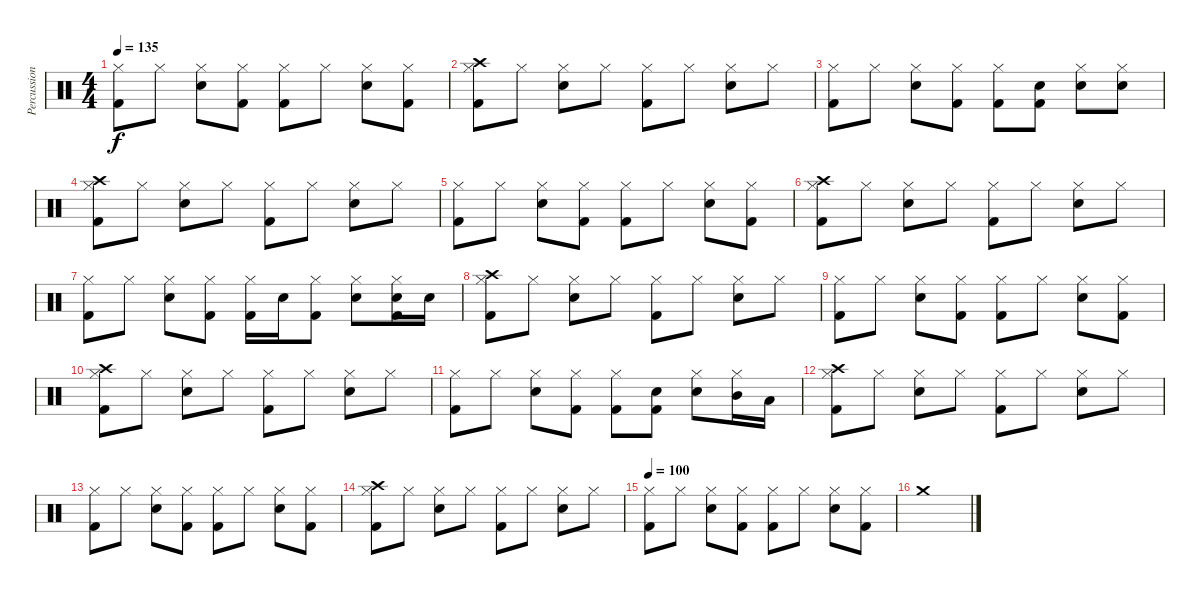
\track ("Percussion" "Percussion") {instrument percussion}
\staff {score}
\articulation defaults
\ts (4 4)
\tempo 135
\clef neutral
\ks c
("Hi-Hat (closed)" "Kick (hit) 2").8{dy f} "Hi-Hat (closed)".8 ("Hi-Hat (closed)" "Electric Snare (hit)").8 ("Hi-Hat (closed)" "Kick (hit) 2").8 ("Hi-Hat (closed)" "Kick (hit) 2").8 "Hi-Hat (closed)".8 ("Hi-Hat (closed)" "Electric Snare (hit)").8 ("Hi-Hat (closed)" "Kick (hit) 2").8 |
("Hi-Hat (closed)" "Kick (hit) 2" "Crash high (hit)").8 "Hi-Hat (closed)".8 ("Hi-Hat (closed)" "Electric Snare (hit)").8 "Hi-Hat (closed)".8 ("Hi-Hat (closed)" "Kick (hit) 2").8 "Hi-Hat (closed)".8 ("Hi-Hat (closed)" "Electric Snare (hit)").8 "Hi-Hat (closed)".8 |
("Hi-Hat (closed)" "Kick (hit) 2").8 "Hi-Hat (closed)".8 ("Hi-Hat (closed)" "Electric Snare (hit)").8 ("Hi-Hat (closed)" "Kick (hit) 2").8 ("Hi-Hat (closed)" "Kick (hit) 2").8 ("Kick (hit) 2" "Electric Snare (hit)").8 ("Hi-Hat (closed)" "Electric Snare (hit)").8 ("Hi-Hat (closed)" "Electric Snare (hit)").8 |
("Hi-Hat (closed)" "Kick (hit) 2" "Crash high (hit)").8 "Hi-Hat (closed)".8 ("Hi-Hat (closed)" "Electric Snare (hit)").8 "Hi-Hat (closed)".8 ("Hi-Hat (closed)" "Kick (hit) 2").8 "Hi-Hat (closed)".8 ("Hi-Hat (closed)" "Electric Snare (hit)").8 "Hi-Hat (closed)".8 |
("Hi-Hat (closed)" "Kick (hit) 2").8 "Hi-Hat (closed)".8 ("Hi-Hat (closed)" "Electric Snare (hit)").8 ("Hi-Hat (closed)" "Kick (hit) 2").8 ("Hi-Hat (closed)" "Kick (hit) 2").8 "Hi-Hat (closed)".8 ("Hi-Hat (closed)" "Electric Snare (hit)").8 ("Hi-Hat (closed)" "Kick (hit) 2").8 |
("Hi-Hat (closed)" "Kick (hit) 2" "Crash high (hit)").8 "Hi-Hat (closed)".8 ("Hi-Hat (closed)" "Electric Snare (hit)").8 "Hi-Hat (closed)".8 ("Hi-Hat (closed)" "Kick (hit) 2").8 "Hi-Hat (closed)".8 ("Hi-Hat (closed)" "Electric Snare (hit)").8 "Hi-Hat (closed)".8 |
("Hi-Hat (closed)" "Kick (hit) 2").8 "Hi-Hat (closed)".8 ("Hi-Hat (closed)" "Electric Snare (hit)").8 ("Hi-Hat (closed)" "Kick (hit) 2").8 ("Hi-Hat (closed)" "Kick (hit) 2").16 "Electric Snare (hit)".16 ("Hi-Hat (closed)" "Kick (hit) 2").8 ("Hi-Hat (closed)" "Electric Snare (hit)").8 ("Hi-Hat (closed)" "Kick (hit) 2" "Electric Snare (hit)").16 "Electric Snare (hit)".16 |
("Hi-Hat (closed)" "Kick (hit) 2" "Crash high (hit)").8 "Hi-Hat (closed)".8 ("Hi-Hat (closed)" "Electric Snare (hit)").8 "Hi-Hat (closed)".8 ("Hi-Hat (closed)" "Kick (hit) 2").8 "Hi-Hat (closed)".8 ("Hi-Hat (closed)" "Electric Snare (hit)").8 "Hi-Hat (closed)".8 |
("Hi-Hat (closed)" "Kick (hit) 2").8 "Hi-Hat (closed)".8 ("Hi-Hat (closed)" "Electric Snare (hit)").8 ("Hi-Hat (closed)" "Kick (hit) 2").8 ("Hi-Hat (closed)" "Kick (hit) 2").8 "Hi-Hat (closed)".8 ("Hi-Hat (closed)" "Electric Snare (hit)").8 ("Hi-Hat (closed)" "Kick (hit) 2").8 |
("Hi-Hat (closed)" "Kick (hit) 2" "Crash high (hit)").8 "Hi-Hat (closed)".8 ("Hi-Hat (closed)" "Electric Snare (hit)").8 "Hi-Hat (closed)".8 ("Hi-Hat (closed)" "Kick (hit) 2").8 "Hi-Hat (closed)".8 ("Hi-Hat (closed)" "Electric Snare (hit)").8 "Hi-Hat (closed)".8 |
("Hi-Hat (closed)" "Kick (hit) 2").8 "Hi-Hat (closed)".8 ("Hi-Hat (closed)" "Electric Snare (hit)").8 ("Hi-Hat (closed)" "Kick (hit) 2").8 ("Hi-Hat (closed)" "Kick (hit) 2").8 ("Kick (hit) 2" "Electric Snare (hit)").8 ("Hi-Hat (closed)" "Electric Snare (hit)").8 ("Hi-Hat (closed)" "Mid Tom (hit)").16 "Low Tom (hit)".16 |
("Hi-Hat (closed)" "Kick (hit) 2" "Crash high (hit)").8 "Hi-Hat (closed)".8 ("Hi-Hat (closed)" "Electric Snare (hit)").8 "Hi-Hat (closed)".8 ("Hi-Hat (closed)" "Kick (hit) 2").8 "Hi-Hat (closed)".8 ("Hi-Hat (closed)" "Electric Snare (hit)").8 "Hi-Hat (closed)".8 |
("Hi-Hat (closed)" "Kick (hit) 2").8 "Hi-Hat (closed)".8 ("Hi-Hat (closed)" "Electric Snare (hit)").8 ("Hi-Hat (closed)" "Kick (hit) 2").8 ("Hi-Hat (closed)" "Kick (hit) 2").8 "Hi-Hat (closed)".8 ("Hi-Hat (closed)" "Electric Snare (hit)").8 ("Hi-Hat (closed)" "Kick (hit) 2").8 |
("Hi-Hat (closed)" "Kick (hit) 2" "Crash high (hit)").8 "Hi-Hat (closed)".8 ("Hi-Hat (closed)" "Electric Snare (hit)").8 "Hi-Hat (closed)".8 ("Hi-Hat (closed)" "Kick (hit) 2").8 "Hi-Hat (closed)".8 ("Hi-Hat (closed)" "Electric Snare (hit)").8 "Hi-Hat (closed)".8 |
\tempo 100
("Hi-Hat (closed)" "Kick (hit) 2").8 "Hi-Hat (closed)".8 ("Hi-Hat (closed)" "Electric Snare (hit)").8 ("Hi-Hat (closed)" "Kick (hit) 2").8 ("Hi-Hat (closed)" "Kick (hit) 2").8 "Hi-Hat (closed)".8 ("Hi-Hat (closed)" "Electric Snare (hit)").8 ("Hi-Hat (closed)" "Kick (hit) 2").8 |
"Crash medium (hit)".1
